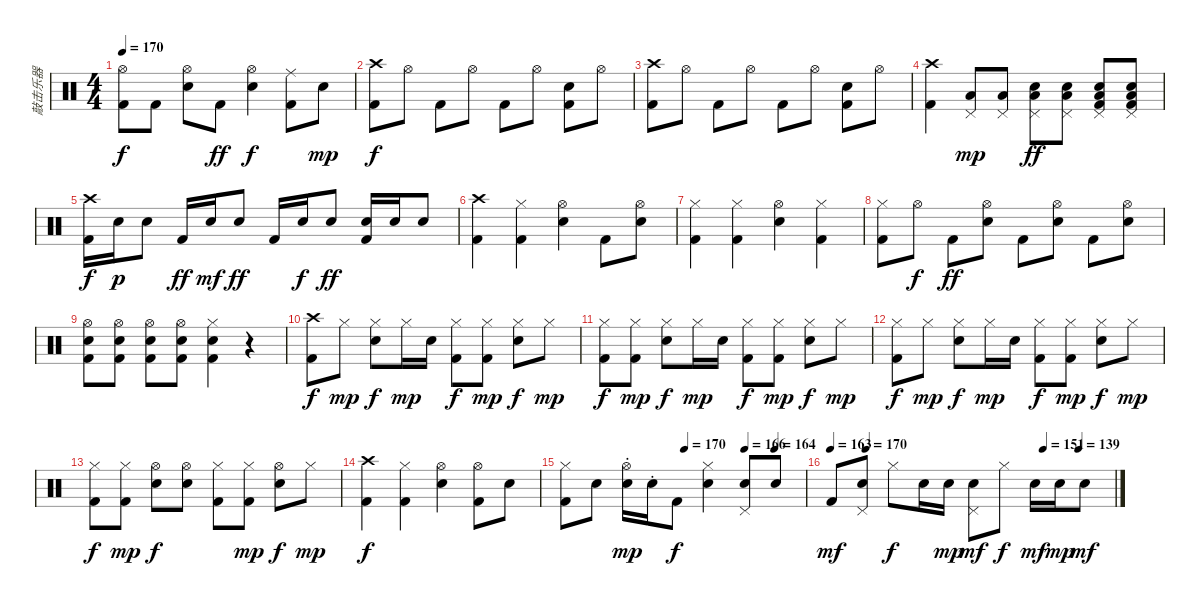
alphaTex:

\track ("敲击乐器" "敲击乐器") {instrument percussion}
\staff {score}
\articulation defaults
\ts (4 4)
\tempo 170
\clef neutral
\ks c
("Hi-Hat (open)" "Kick (hit) 2").8{dy f} "Kick (hit) 2".8 ("Hi-Hat (open)" "Snare (hit) 2").8 "Kick (hit) 2".8{dy ff} ("Hi-Hat (open)" "Snare (hit) 2").4{dy f} ("Ride (middle)" "Kick (hit) 2").8 "Snare (hit) 2".8{dy mp} |
("Crash high (hit)" "Kick (hit) 2").8{dy f} "Hi-Hat (open)".8 "Kick (hit) 2".8 "Hi-Hat (open)".8 "Kick (hit) 2".8 "Hi-Hat (open)".8 ("Snare (hit) 2" "Kick (hit) 2").8 "Hi-Hat (open)".8 |
("Crash high (hit)" "Kick (hit) 2").8 "Hi-Hat (open)".8 "Kick (hit) 2".8 "Hi-Hat (open)".8 "Kick (hit) 2".8 "Hi-Hat (open)".8 ("Snare (hit) 2" "Kick (hit) 2").8 "Hi-Hat (open)".8 |
("Crash high (hit)" "Kick (hit) 2").4 ("Pedal Hi-Hat (hit)" "Low Floor Tom (hit)").8{dy mp} ("Pedal Hi-Hat (hit)" "Low Floor Tom (hit)").8 ("Pedal Hi-Hat (hit)" "Snare (hit) 2" "Low Floor Tom (hit)").8{dy ff} ("Pedal Hi-Hat (hit)" "Snare (hit) 2" "Low Floor Tom (hit)").8 ("Pedal Hi-Hat (hit)" "Snare (hit) 2" "Low Floor Tom (hit)" "Kick (hit) 2").8 ("Pedal Hi-Hat (hit)" "Snare (hit) 2" "Low Floor Tom (hit)" "Kick (hit) 2").8 |
("Crash high (hit)" "Kick (hit) 2").16{dy f} "Snare (hit) 2".16{dy p} "Snare (hit) 2".8 "Kick (hit) 2".16{dy ff} "Snare (hit) 2".16{dy mf} "Snare (hit) 2".8{dy ff} "Kick (hit) 2".16 "Snare (hit) 2".16{dy f} "Snare (hit) 2".8{dy ff} ("Snare (hit) 2" "Kick (hit) 2").16 "Snare (hit) 2".16 "Snare (hit) 2".8 |
("Crash high (hit)" "Kick (hit) 2").4 ("Hi-Hat (closed)" "Kick (hit) 2").4 ("Hi-Hat (open)" "Snare (hit) 2").4 "Kick (hit) 2".8 ("Hi-Hat (open)" "Snare (hit) 2").8 |
("Hi-Hat (closed)" "Kick (hit) 2").4 ("Hi-Hat (closed)" "Kick (hit) 2").4 ("Hi-Hat (open)" "Snare (hit) 2").4 ("Hi-Hat (closed)" "Kick (hit) 2").4 |
("Hi-Hat (closed)" "Kick (hit) 2").8 "Hi-Hat (open)".8{dy f} "Kick (hit) 2".8{dy ff} ("Hi-Hat (open)" "Snare (hit) 2").8 "Kick (hit) 2".8 ("Hi-Hat (open)" "Snare (hit) 2").8 "Kick (hit) 2".8 ("Hi-Hat (open)" "Snare (hit) 2").8 |
("Hi-Hat (open)" "Snare (hit) 2" "Kick (hit) 2").8 ("Hi-Hat (open)" "Snare (hit) 2" "Kick (hit) 2").8 ("Hi-Hat (open)" "Snare (hit) 2" "Kick (hit) 2").8 ("Hi-Hat (open)" "Snare (hit) 2" "Kick (hit) 2").8 ("Hi-Hat (closed)" "Snare (hit) 2" "Kick (hit) 2").4 r.4 |
("Crash high (hit)" "Kick (hit) 2").8{dy f} "Hi-Hat (closed)".8{dy mp} ("Hi-Hat (closed)" "Snare (hit) 2").8{dy f} "Hi-Hat (closed)".16{dy mp} "Snare (hit) 2".16 ("Hi-Hat (closed)" "Kick (hit) 2").8{dy f} ("Hi-Hat (closed)" "Kick (hit) 2").8{dy mp} ("Hi-Hat (closed)" "Snare (hit) 2").8{dy f} "Hi-Hat (closed)".8{dy mp} |
("Hi-Hat (closed)" "Kick (hit) 2").8{dy f} ("Hi-Hat (closed)" "Kick (hit) 2").8{dy mp} ("Hi-Hat (closed)" "Snare (hit) 2").8{dy f} "Hi-Hat (closed)".16{dy mp} "Snare (hit) 2".16 ("Hi-Hat (closed)" "Kick (hit) 2").8{dy f} ("Hi-Hat (closed)" "Kick (hit) 2").8{dy mp} ("Hi-Hat (closed)" "Snare (hit) 2").8{dy f} "Hi-Hat (closed)".8{dy mp} |
("Hi-Hat (closed)" "Kick (hit) 2").8{dy f} "Hi-Hat (closed)".8{dy mp} ("Hi-Hat (closed)" "Snare (hit) 2").8{dy f} "Hi-Hat (closed)".16{dy mp} "Snare (hit) 2".16 ("Hi-Hat (closed)" "Kick (hit) 2").8{dy f} ("Hi-Hat (closed)" "Kick (hit) 2").8{dy mp} ("Hi-Hat (closed)" "Snare (hit) 2").8{dy f} "Hi-Hat (closed)".8{dy mp} |
("Hi-Hat (closed)" "Kick (hit) 2").8{dy f} ("Hi-Hat (closed)" "Kick (hit) 2").8{dy mp} ("Hi-Hat (open)" "Snare (hit) 2").8{dy f} ("Hi-Hat (open)" "Snare (hit) 2").8 ("Hi-Hat (closed)" "Kick (hit) 2").8 ("Hi-Hat (closed)" "Kick (hit) 2").8{dy mp} ("Hi-Hat (open)" "Snare (hit) 2").8{dy f} "Hi-Hat (closed)".8{dy mp} |
("Crash high (hit)" "Kick (hit) 2").4{dy f} ("Hi-Hat (closed)" "Kick (hit) 2").4 ("Hi-Hat (open)" "Snare (hit) 2").4 ("Hi-Hat (open)" "Kick (hit) 2").8 "Snare (hit) 2".8 |
\tempo (170 0.5)
\tempo (166 0.75)
\tempo (164 0.875)
("Hi-Hat (closed)" "Kick (hit) 2").8 "Snare (hit) 2".8 ("Hi-Hat (open)" "Snare (hit) 2"{st}).16{dy mp} "Snare (hit) 2"{st}.16 "Kick (hit) 2".8{dy f} ("Hi-Hat (closed)" "Snare (hit) 2").4 ("Pedal Hi-Hat (hit)" "Snare (hit) 2").8 "Snare (hit) 2".8 |
\tempo 163
\tempo (170 0.125)
\tempo (151 0.75)
\tempo (139 0.875)
"Kick (hit) 2".8{dy mf} ("Pedal Hi-Hat (hit)" "Snare (hit) 2").8 "Hi-Hat (closed)".8{dy f} "Snare (hit) 2".16 "Snare (hit) 2".16{dy mp} ("Pedal Hi-Hat (hit)" "Snare (hit) 2").8{dy mf} "Hi-Hat (closed)".8{dy f} "Snare (hit) 2".16{dy mf} "Snare (hit) 2".16{dy mp} "Snare (hit) 2".8{dy mf}
